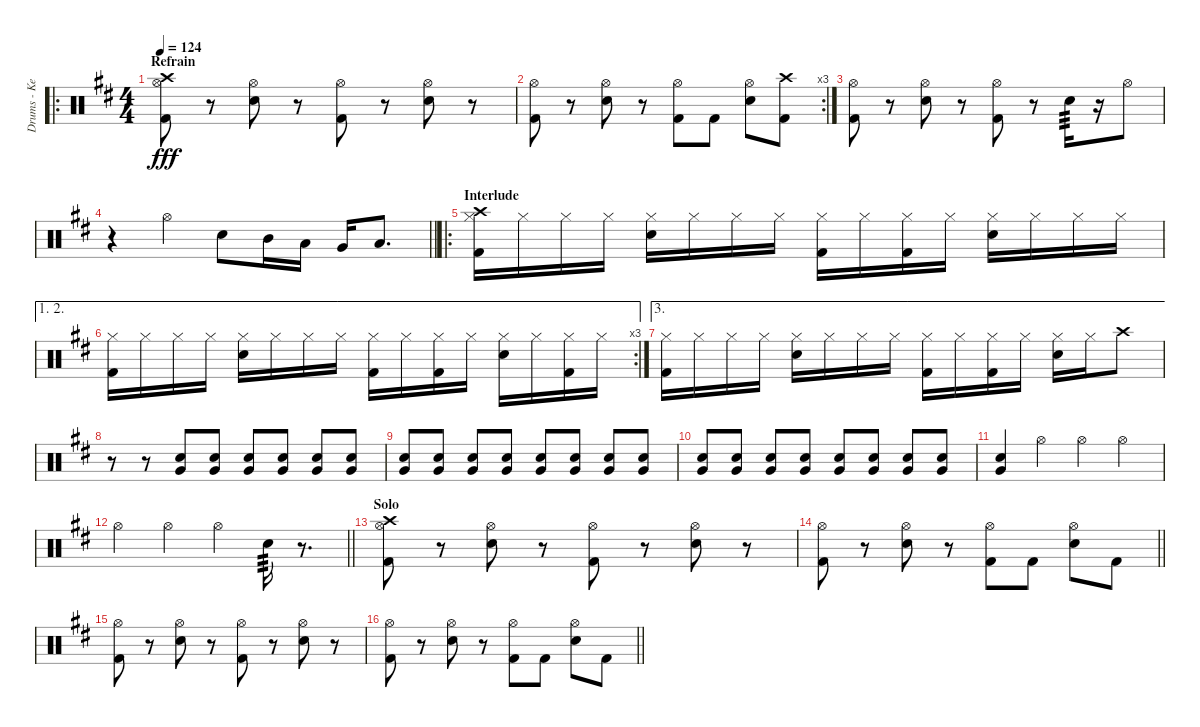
\track ("Drums - Kevin Frank" "Drums - Ke") {instrument percussion}
\staff {score}
\articulation defaults
\ro
\ts (4 4)
\section ("" "Refrain")
\tempo 124
\clef neutral
\ks d
("Crash high (hit)" "Hi-Hat (open)" "Kick (hit) 2").8{dy fff} r.8 ("Hi-Hat (open)" "Snare (hit) 2").8 r.8 ("Hi-Hat (open)" "Kick (hit) 2").8 r.8 ("Hi-Hat (open)" "Snare (hit) 2").8 r.8 |
\rc 3
("Hi-Hat (open)" "Kick (hit) 2").8 r.8 ("Hi-Hat (open)" "Snare (hit) 2").8 r.8 ("Hi-Hat (open)" "Kick (hit) 2").8 "Kick (hit) 2".8 ("Hi-Hat (open)" "Snare (hit) 2").8 ("Crash high (hit)" "Kick (hit) 2").8 |
("Hi-Hat (open)" "Kick (hit) 2").8 r.8 ("Hi-Hat (open)" "Snare (hit) 2").8 r.8 ("Hi-Hat (open)" "Kick (hit) 2").8 r.8 "Snare (hit) 2".16{tp 3} r.16 "Hi-Hat (open)".8 |
\barLineRight lightlight
r.4 "Hi-Hat (open)".4 "Snare (hit) 2".8 "Mid Tom (hit)".16 "Low Tom (hit)".16 "Very Low Tom (hit)".16 "Low Floor Tom (hit)".8{d} |
\ro
\section ("" "Interlude")
("Crash high (hit)" "Hi-Hat (closed)" "Kick (hit) 2").16 "Hi-Hat (closed)".16 "Hi-Hat (closed)".16 "Hi-Hat (closed)".16 ("Hi-Hat (closed)" "Snare (hit) 2").16 "Hi-Hat (closed)".16 "Hi-Hat (closed)".16 "Hi-Hat (closed)".16 ("Hi-Hat (closed)" "Kick (hit) 2").16 "Hi-Hat (closed)".16 ("Hi-Hat (closed)" "Kick (hit) 2").16 "Hi-Hat (closed)".16 ("Hi-Hat (closed)" "Snare (hit) 2").16 "Hi-Hat (closed)".16 "Hi-Hat (closed)".16 "Hi-Hat (closed)".16 |
\ae (1 2)
\rc 3
("Hi-Hat (closed)" "Kick (hit) 2").16 "Hi-Hat (closed)".16 "Hi-Hat (closed)".16 "Hi-Hat (closed)".16 ("Hi-Hat (closed)" "Snare (hit) 2").16 "Hi-Hat (closed)".16 "Hi-Hat (closed)".16 "Hi-Hat (closed)".16 ("Hi-Hat (closed)" "Kick (hit) 2").16 "Hi-Hat (closed)".16 ("Hi-Hat (closed)" "Kick (hit) 2").16 "Hi-Hat (closed)".16 ("Hi-Hat (closed)" "Snare (hit) 2").16 "Hi-Hat (closed)".16 ("Hi-Hat (closed)" "Kick (hit) 2").16 "Hi-Hat (closed)".16 |
\ae 3
("Hi-Hat (closed)" "Kick (hit) 2").16 "Hi-Hat (closed)".16 "Hi-Hat (closed)".16 "Hi-Hat (closed)".16 ("Hi-Hat (closed)" "Snare (hit) 2").16 "Hi-Hat (closed)".16 "Hi-Hat (closed)".16 "Hi-Hat (closed)".16 ("Hi-Hat (closed)" "Kick (hit) 2").16 "Hi-Hat (closed)".16 ("Hi-Hat (closed)" "Kick (hit) 2").16 "Hi-Hat (closed)".16 ("Hi-Hat (closed)" "Snare (hit) 2").16 "Hi-Hat (closed)".16 "Crash high (hit)".8 |
r.8 r.8 ("Snare (hit) 2" "Very Low Tom (hit)").8 ("Snare (hit) 2" "Very Low Tom (hit)").8 ("Snare (hit) 2" "Very Low Tom (hit)").8 ("Snare (hit) 2" "Very Low Tom (hit)").8 ("Snare (hit) 2" "Very Low Tom (hit)").8 ("Snare (hit) 2" "Very Low Tom (hit)").8 |
("Snare (hit) 2" "Very Low Tom (hit)").8 ("Snare (hit) 2" "Very Low Tom (hit)").8 ("Snare (hit) 2" "Very Low Tom (hit)").8 ("Snare (hit) 2" "Very Low Tom (hit)").8 ("Snare (hit) 2" "Very Low Tom (hit)").8 ("Snare (hit) 2" "Very Low Tom (hit)").8 ("Snare (hit) 2" "Very Low Tom (hit)").8 ("Snare (hit) 2" "Very Low Tom (hit)").8 |
("Snare (hit) 2" "Very Low Tom (hit)").8 ("Snare (hit) 2" "Very Low Tom (hit)").8 ("Snare (hit) 2" "Very Low Tom (hit)").8 ("Snare (hit) 2" "Very Low Tom (hit)").8 ("Snare (hit) 2" "Very Low Tom (hit)").8 ("Snare (hit) 2" "Very Low Tom (hit)").8 ("Snare (hit) 2" "Very Low Tom (hit)").8 ("Snare (hit) 2" "Very Low Tom (hit)").8 |
("Snare (hit) 2" "Very Low Tom (hit)").4 "Hi-Hat (open)".4 "Hi-Hat (open)".4 "Hi-Hat (open)".4 |
\barLineRight lightlight "Hi-Hat (open)".4 "Hi-Hat (open)".4 "Hi-Hat (open)".4 "Snare (hit) 2".16{tp 3}
r.8{d} |
\section ("" "Solo")
("Crash high (hit)" "Hi-Hat (open)" "Kick (hit) 2").8 r.8 ("Hi-Hat (open)" "Snare (hit) 2").8 r.8 ("Hi-Hat (open)" "Kick (hit) 2").8 r.8 ("Hi-Hat (open)" "Snare (hit) 2").8 r.8 |
\barLineRight lightlight
("Hi-Hat (open)" "Kick (hit) 2").8 r.8 ("Hi-Hat (open)" "Snare (hit) 2").8 r.8 ("Hi-Hat (open)" "Kick (hit) 2").8 "Kick (hit) 2".8 ("Hi-Hat (open)" "Snare (hit) 2").8 "Kick (hit) 2".8 |
("Hi-Hat (open)" "Kick (hit) 2").8 r.8 ("Hi-Hat (open)" "Snare (hit) 2").8 r.8 ("Hi-Hat (open)" "Kick (hit) 2").8 r.8 ("Hi-Hat (open)" "Snare (hit) 2").8 r.8 |
\barLineRight lightlight
("Hi-Hat (open)" "Kick (hit) 2").8 r.8 ("Hi-Hat (open)" "Snare (hit) 2").8 r.8 ("Hi-Hat (open)" "Kick (hit) 2").8 "Kick (hit) 2".8 ("Hi-Hat (open)" "Snare (hit) 2").8 "Kick (hit) 2".8
